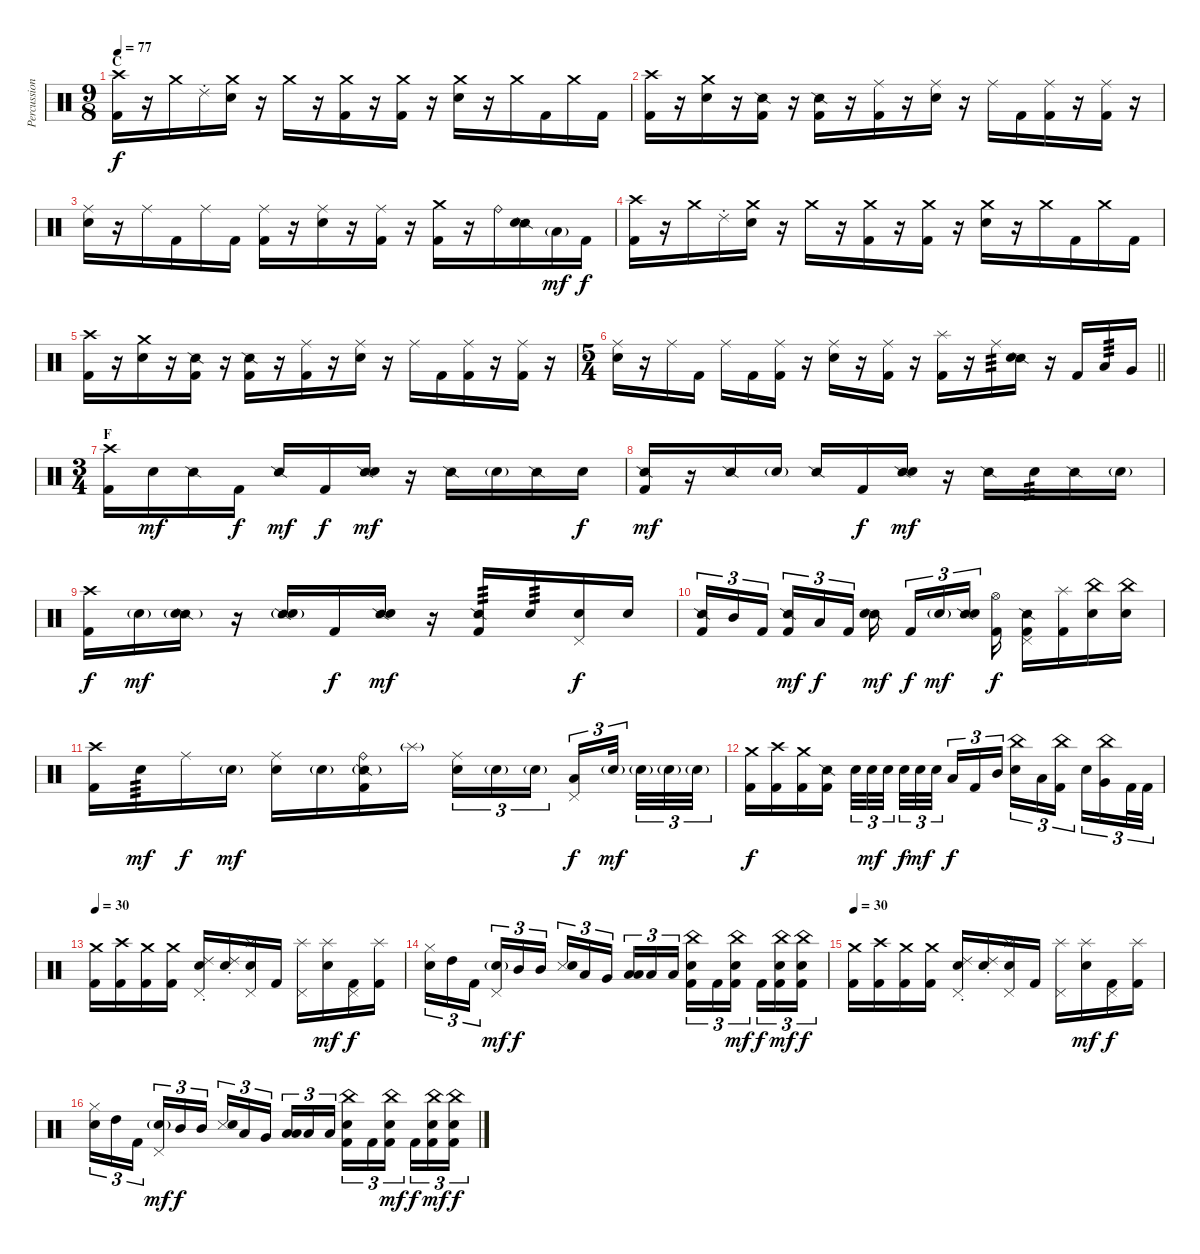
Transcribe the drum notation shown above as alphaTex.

\track ("Percussion" "Percussion") {instrument percussion}
\staff {score}
\articulation defaults
\ts (9 8)
\section ("" "C")
\tempo 77
\clef neutral
\ks c
("Crash high (hit)" "Kick (hit) 2").16{dy f} r.16 "Crash medium (hit)".16 "Ride (choke) 2".16 ("Crash medium (hit)" "Snare (hit) 2").16 r.16 "Crash medium (hit)".16 r.16 ("Crash medium (hit)" "Kick (hit) 2").16 r.16 ("Crash medium (hit)" "Kick (hit) 2").16 r.16 ("Crash medium (hit)" "Snare (hit) 2").16 r.16 "Crash medium (hit)".16 "Kick (hit) 2".16 "Crash medium (hit)".16 "Kick (hit) 2".16 |
("Crash high (hit)" "Kick (hit) 2").16 r.16 ("Crash medium (hit)" "Snare (hit) 2").16 r.16 ("Snare (side stick) 2" "Kick (hit) 2").16 r.16 ("Snare (side stick) 2" "Kick (hit) 2").16 r.16 ("Ride (middle)" "Kick (hit) 2").16 r.16 ("Ride (middle)" "Snare (hit) 2").16 r.16 "Ride (middle)".16 "Kick (hit) 2".16 ("Ride (middle)" "Kick (hit) 2").16 r.16 ("Ride (middle)" "Kick (hit) 2").16 r.16 |
("Ride (middle)" "Snare (hit) 2").16 r.16 "Ride (middle)".16 "Kick (hit) 2".16 "Ride (middle)".16 "Kick (hit) 2".16 ("Ride (middle)" "Kick (hit) 2").16 r.16 ("Ride (middle)" "Snare (hit) 2").16 r.16 ("Ride (middle)" "Kick (hit) 2").16 r.16 ("Crash medium (hit)" "Kick (hit) 2").16 r.16 "Ride (bell)".16 ("Snare (side stick) 2" "Snare (hit) 2").16 "Low Tom (hit)"{g}.16{dy mf} "Kick (hit) 2".16{dy f} |
("Crash high (hit)" "Kick (hit) 2").16 r.16 "Crash medium (hit)".16 "Ride (choke) 2".16 ("Crash medium (hit)" "Snare (hit) 2").16 r.16 "Crash medium (hit)".16 r.16 ("Crash medium (hit)" "Kick (hit) 2").16 r.16 ("Crash medium (hit)" "Kick (hit) 2").16 r.16 ("Crash medium (hit)" "Snare (hit) 2").16 r.16 "Crash medium (hit)".16 "Kick (hit) 2".16 "Crash medium (hit)".16 "Kick (hit) 2".16 |
("Crash high (hit)" "Kick (hit) 2").16 r.16 ("Crash medium (hit)" "Snare (hit) 2").16 r.16 ("Snare (side stick) 2" "Kick (hit) 2").16 r.16 ("Snare (side stick) 2" "Kick (hit) 2").16 r.16 ("Ride (middle)" "Kick (hit) 2").16 r.16 ("Ride (middle)" "Snare (hit) 2").16 r.16 "Ride (middle)".16 "Kick (hit) 2".16 ("Ride (middle)" "Kick (hit) 2").16 r.16 ("Ride (middle)" "Kick (hit) 2").16 r.16 |
\ts (5 4)
\barLineRight lightlight
("Ride (middle)" "Snare (hit) 2").16 r.16 "Ride (middle)".16 "Kick (hit) 2".16 "Ride (middle)".16 "Kick (hit) 2".16 ("Ride (middle)" "Kick (hit) 2").16 r.16 ("Ride (middle)" "Snare (hit) 2").16 r.16 ("Ride (middle)" "Kick (hit) 2").16 r.16 ("Splash (hit)" "Kick (hit) 2").16 r.16 "Ride (middle)".16{tp 3} ("Snare (side stick) 2" "Snare (hit) 2").16 r.16 "Kick (hit) 2".16 "Low Tom (hit)".16{tp 3} "Very Low Tom (hit)".16 |
\ts (3 4)
\section ("" "F")
("Crash high (hit)" "Kick (hit) 2").16 "Snare (hit) 2".16{dy mf} "Snare (side stick) 2".16 "Kick (hit) 2".16{dy f} "Snare (side stick) 2".16{dy mf} "Kick (hit) 2".16{dy f} ("Snare (side stick) 2" "Snare (hit) 2").16{dy mf} r.16 "Snare (side stick) 2".16 "Snare (hit) 2"{g}.16 "Snare (side stick) 2".16 "Snare (hit) 2".16{dy f} |
("Snare (side stick) 2" "Kick (hit) 2").16{dy mf} r.16 "Snare (side stick) 2".16 "Snare (hit) 2"{g}.16 "Snare (side stick) 2".16 "Kick (hit) 2".16{dy f} ("Snare (side stick) 2" "Snare (hit) 2").16{dy mf} r.16 "Snare (side stick) 2".16 "Snare (hit) 2".16{tp 3} "Snare (side stick) 2".16 "Snare (hit) 2"{g}.16 |
("Crash high (hit)" "Kick (hit) 2").16{dy f} "Snare (hit) 2"{g}.16{dy mf} ("Snare (side stick) 2" "Snare (hit) 2"{g}).16 r.16 ("Snare (side stick) 2" "Snare (hit) 2"{g}).16 "Kick (hit) 2".16{dy f} ("Snare (side stick) 2" "Snare (hit) 2").16{dy mf} r.16 ("Snare (side stick) 2" "Kick (hit) 2").16{tp 3} "Snare (hit) 2".16{tp 3} ("Pedal Hi-Hat (hit)" "Snare (hit) 2").16{dy f} "Snare (hit) 2".16 |
("Snare (side stick) 2" "Kick (hit) 2").16{tu (3 2)} "Mid Tom (hit)".16{tu (3 2)} "Kick (hit) 2".16{tu (3 2) beam splitsecondary} ("Snare (side stick) 2" "Kick (hit) 2").16{tu (3 2) dy mf} "Low Tom (hit)".16{tu (3 2) dy f} "Kick (hit) 2".16{tu (3 2)} ("Snare (side stick) 2" "Snare (hit) 2").16{dy mf beam splitsecondary} "Kick (hit) 2".16{tu (3 2) dy f} "Snare (hit) 2"{g}.16{tu (3 2) dy mf} ("Snare (side stick) 2" "Snare (hit) 2").16{tu (3 2) beam splitsecondary} ("Hi-Hat (open)" "Kick (hit) 2").16{dy f} ("Snare (side stick) 2" "Pedal Hi-Hat (hit)" "Kick (hit) 2").16 ("Splash (hit)" "Kick (hit) 2").16 ("China (hit)" "Snare (hit) 2").16 ("China (hit)" "Snare (hit) 2").16 |
("Crash high (hit)" "Kick (hit) 2").16 "Snare (hit) 2".16{tp 3 dy mf} "Ride (middle)".16{dy f} "Snare (hit) 2"{g}.16{dy mf} ("Ride (middle)" "Snare (hit) 2").16 "Snare (hit) 2"{g}.16 ("Ride (bell)" "Snare (side stick) 2"{g} "Kick (hit) 2").16 "Splash (hit)"{g}.16 ("Ride (middle)" "Snare (hit) 2").16{tu (3 2)} "Snare (hit) 2"{g}.16{tu (3 2)} "Snare (hit) 2"{g}.16{tu (3 2) beam splitsecondary} ("Pedal Hi-Hat (hit)" "Low Tom (hit)").16{tu (3 2) dy f} "Snare (hit) 2"{g}.32{tu (3 2) dy mf beam splitsecondary} "Snare (hit) 2"{g}.32{tu (3 2)} "Snare (hit) 2"{g}.32{tu (3 2)} "Snare (hit) 2"{g}.32{tu (3 2)} |
("Crash medium (hit)" "Kick (hit) 2").16{dy f} ("Crash high (hit)" "Kick (hit) 2").16 ("Crash medium (hit)" "Kick (hit) 2").16 ("Snare (side stick) 2" "Kick (hit) 2").16 "Snare (hit) 2".32{tu (3 2)} "Snare (hit) 2".32{tu (3 2) dy mf} "Snare (hit) 2".32{tu (3 2) beam splitsecondary} "Snare (hit) 2".32{tu (3 2) dy f} "Snare (hit) 2".32{tu (3 2) dy mf} "Snare (hit) 2".32{tu (3 2) beam splitsecondary} "Low Tom (hit)".16{tu (3 2) dy f} "Kick (hit) 2".16{tu (3 2)} "Mid Tom (hit)".16{tu (3 2)} ("China (hit)" "Snare (hit) 2").16{tu (3 2)} "Low Tom (hit)".16{tu (3 2)} ("China (hit)" "Kick (hit) 2").16{tu (3 2) beam splitsecondary} "Snare (hit) 2".16{tu (3 2)} ("China (hit)" "Very Low Tom (hit)").16{tu (3 2)} "Kick (hit) 2".32{tu (3 2)} "Kick (hit) 2".32{tu (3 2)} |
\tempo 30
("Crash medium (hit)" "Kick (hit) 2").16 ("Crash high (hit)" "Kick (hit) 2").16 ("Crash medium (hit)" "Kick (hit) 2").16 ("Crash medium (hit)" "Kick (hit) 2").16 ("Ride (choke) 2" "Pedal Hi-Hat (hit)" "Snare (hit) 2").16 ("Ride (choke) 2" "Snare (hit) 2").16 ("Splash (hit)" "Pedal Hi-Hat (hit)" "Snare (hit) 2").16 "Kick (hit) 2".16 ("Splash (hit)" "Pedal Hi-Hat (hit)").16 ("Splash (hit)" "Snare (hit) 2").16{dy mf} ("Pedal Hi-Hat (hit)" "Kick (hit) 2").16{dy f} ("Splash (hit)" "Kick (hit) 2").16 |
("Hi-Hat (closed)" "Snare (hit) 2").16{tu (3 2)} "High Tom (hit)".16{tu (3 2)} "Kick (hit) 2".16{tu (3 2) beam splitsecondary} ("Pedal Hi-Hat (hit)" "Snare (hit) 2"{g}).16{tu (3 2) dy mf} "Mid Tom (hit)".16{tu (3 2) dy f} "Mid Tom (hit)".16{tu (3 2)} ("Metronome (hit)" "Snare (hit) 2").16{tu (3 2) bu 480} "Low Tom (hit)".16{tu (3 2)} "Very Low Tom (hit)".16{tu (3 2) beam splitsecondary} ("Low Floor Tom (hit)" "Low Floor Tom (hit)").16{tu (3 2) bu 480} "Low Floor Tom (hit)".16{tu (3 2)} "Low Floor Tom (hit)".16{tu (3 2)} ("China (hit)" "Snare (hit) 2" "Kick (hit) 2").16{tu (3 2)} "Kick (hit) 2".16{tu (3 2)} ("China (hit)" "Snare (hit) 2" "Kick (hit) 2").16{tu (3 2) dy mf beam splitsecondary} "Kick (hit) 2".16{tu (3 2) dy f} ("China (hit)" "Snare (hit) 2" "Kick (hit) 2").16{tu (3 2) dy mf} ("China (hit)" "Snare (hit) 2" "Kick (hit) 2").16{tu (3 2) dy f} |
\tempo 30
("Crash medium (hit)" "Kick (hit) 2").16 ("Crash high (hit)" "Kick (hit) 2").16 ("Crash medium (hit)" "Kick (hit) 2").16 ("Crash medium (hit)" "Kick (hit) 2").16 ("Ride (choke) 2" "Pedal Hi-Hat (hit)" "Snare (hit) 2").16 ("Ride (choke) 2" "Snare (hit) 2").16 ("Splash (hit)" "Pedal Hi-Hat (hit)" "Snare (hit) 2").16 "Kick (hit) 2".16 ("Splash (hit)" "Pedal Hi-Hat (hit)").16 ("Splash (hit)" "Snare (hit) 2").16{dy mf} ("Pedal Hi-Hat (hit)" "Kick (hit) 2").16{dy f} ("Splash (hit)" "Kick (hit) 2").16 |
("Hi-Hat (closed)" "Snare (hit) 2").16{tu (3 2)} "High Tom (hit)".16{tu (3 2)} "Kick (hit) 2".16{tu (3 2) beam splitsecondary} ("Pedal Hi-Hat (hit)" "Snare (hit) 2"{g}).16{tu (3 2) dy mf} "Mid Tom (hit)".16{tu (3 2) dy f} "Mid Tom (hit)".16{tu (3 2)} ("Metronome (hit)" "Snare (hit) 2").16{tu (3 2) bu 480} "Low Tom (hit)".16{tu (3 2)} "Very Low Tom (hit)".16{tu (3 2) beam splitsecondary} ("Low Floor Tom (hit)" "Low Floor Tom (hit)").16{tu (3 2) bu 480} "Low Floor Tom (hit)".16{tu (3 2)} "Low Floor Tom (hit)".16{tu (3 2)} ("China (hit)" "Snare (hit) 2" "Kick (hit) 2").16{tu (3 2)} "Kick (hit) 2".16{tu (3 2)} ("China (hit)" "Snare (hit) 2" "Kick (hit) 2").16{tu (3 2) dy mf beam splitsecondary} "Kick (hit) 2".16{tu (3 2) dy f} ("China (hit)" "Snare (hit) 2" "Kick (hit) 2").16{tu (3 2) dy mf} ("China (hit)" "Snare (hit) 2" "Kick (hit) 2").16{tu (3 2) dy f}
